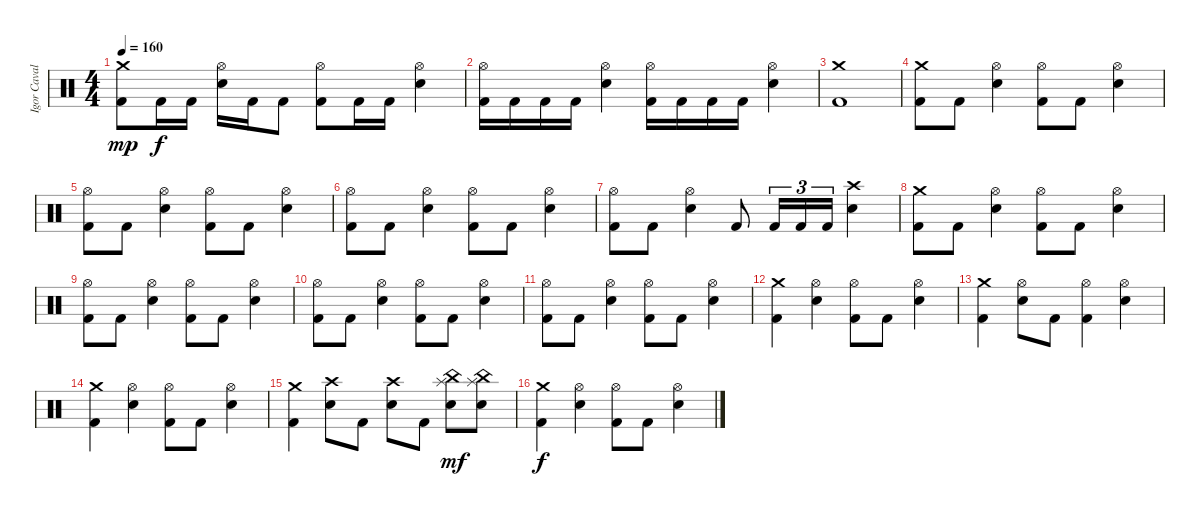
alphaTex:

\track ("Igor Cavalera" "Igor Caval") {instrument percussion}
\staff {score}
\articulation defaults
\ts (4 4)
\tempo 160
\clef neutral
\ks c
("Kick (hit) 2" "Crash medium (hit)").8{dy mp} "Kick (hit) 2".16{dy f} "Kick (hit) 2".16 ("Hi-Hat (open)" "Electric Snare (hit)").16 "Kick (hit) 2".16 "Kick (hit) 2".8 ("Hi-Hat (open)" "Kick (hit) 2").8 "Kick (hit) 2".16 "Kick (hit) 2".16 ("Electric Snare (hit)" "Hi-Hat (open)").4 |
("Hi-Hat (open)" "Kick (hit) 2").16 "Kick (hit) 2".16 "Kick (hit) 2".16 "Kick (hit) 2".16 ("Hi-Hat (open)" "Electric Snare (hit)").4 ("Hi-Hat (open)" "Kick (hit) 2").16 "Kick (hit) 2".16 "Kick (hit) 2".16 "Kick (hit) 2".16 ("Hi-Hat (open)" "Electric Snare (hit)").4 |
("Kick (hit) 2" "Crash medium (hit)").1 |
("Kick (hit) 2" "Crash medium (hit)").8 "Kick (hit) 2".8 ("Electric Snare (hit)" "Hi-Hat (open)").4 ("Kick (hit) 2" "Hi-Hat (open)").8 "Kick (hit) 2".8 ("Electric Snare (hit)" "Hi-Hat (open)").4 |
("Kick (hit) 2" "Hi-Hat (open)").8 "Kick (hit) 2".8 ("Electric Snare (hit)" "Hi-Hat (open)").4 ("Kick (hit) 2" "Hi-Hat (open)").8 "Kick (hit) 2".8 ("Electric Snare (hit)" "Hi-Hat (open)").4 |
("Kick (hit) 2" "Hi-Hat (open)").8 "Kick (hit) 2".8 ("Electric Snare (hit)" "Hi-Hat (open)").4 ("Kick (hit) 2" "Hi-Hat (open)").8 "Kick (hit) 2".8 ("Electric Snare (hit)" "Hi-Hat (open)").4 |
("Kick (hit) 2" "Hi-Hat (open)").8 "Kick (hit) 2".8 ("Electric Snare (hit)" "Hi-Hat (open)").4 "Kick (hit) 2".8 "Kick (hit) 2".16{tu (3 2)} "Kick (hit) 2".16{tu (3 2)} "Kick (hit) 2".16{tu (3 2)} ("Electric Snare (hit)" "Crash high (hit)").4 |
("Kick (hit) 2" "Crash medium (hit)").8 "Kick (hit) 2".8 ("Electric Snare (hit)" "Hi-Hat (open)").4 ("Kick (hit) 2" "Hi-Hat (open)").8 "Kick (hit) 2".8 ("Electric Snare (hit)" "Hi-Hat (open)").4 |
("Kick (hit) 2" "Hi-Hat (open)").8 "Kick (hit) 2".8 ("Electric Snare (hit)" "Hi-Hat (open)").4 ("Kick (hit) 2" "Hi-Hat (open)").8 "Kick (hit) 2".8 ("Electric Snare (hit)" "Hi-Hat (open)").4 |
("Kick (hit) 2" "Hi-Hat (open)").8 "Kick (hit) 2".8 ("Electric Snare (hit)" "Hi-Hat (open)").4 ("Kick (hit) 2" "Hi-Hat (open)").8 "Kick (hit) 2".8 ("Electric Snare (hit)" "Hi-Hat (open)").4 |
("Kick (hit) 2" "Hi-Hat (open)").8 "Kick (hit) 2".8 ("Electric Snare (hit)" "Hi-Hat (open)").4 ("Kick (hit) 2" "Hi-Hat (open)").8 "Kick (hit) 2".8 ("Electric Snare (hit)" "Hi-Hat (open)").4 |
("Kick (hit) 2" "Crash medium (hit)").4 ("Electric Snare (hit)" "Hi-Hat (open)").4 ("Kick (hit) 2" "Hi-Hat (open)").8 "Kick (hit) 2".8 ("Electric Snare (hit)" "Hi-Hat (open)").4 |
("Kick (hit) 2" "Crash medium (hit)").4 ("Electric Snare (hit)" "Hi-Hat (open)").8 "Kick (hit) 2".8 ("Kick (hit) 2" "Hi-Hat (open)").4 ("Electric Snare (hit)" "Hi-Hat (open)").4 |
("Kick (hit) 2" "Crash medium (hit)").4 ("Electric Snare (hit)" "Hi-Hat (open)").4 ("Kick (hit) 2" "Hi-Hat (open)").8 "Kick (hit) 2".8 ("Electric Snare (hit)" "Hi-Hat (open)").4 |
("Kick (hit) 2" "Crash medium (hit)").4 ("Electric Snare (hit)" "Crash high (hit)").8 "Kick (hit) 2".8 ("Electric Snare (hit)" "Crash high (hit)").8 "Kick (hit) 2".8 ("Splash (hit)" "Electric Snare (hit)" "China (hit)").8{dy mf} ("Splash (hit)" "Electric Snare (hit)" "China (hit)").8 |
("Kick (hit) 2" "Crash medium (hit)").4{dy f} ("Electric Snare (hit)" "Hi-Hat (open)").4 ("Kick (hit) 2" "Hi-Hat (open)").8 "Kick (hit) 2".8 ("Electric Snare (hit)" "Hi-Hat (open)").4
